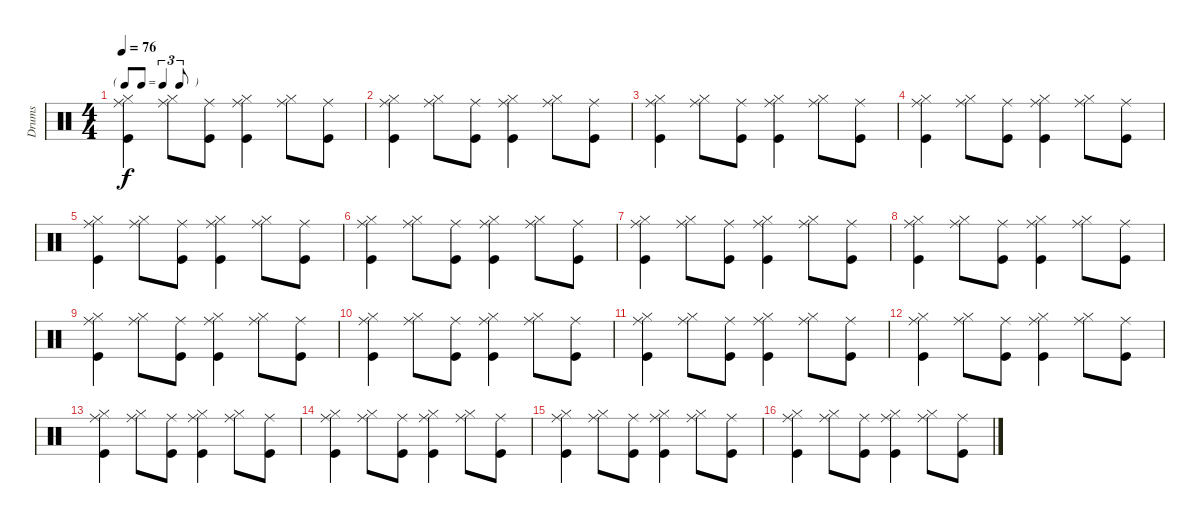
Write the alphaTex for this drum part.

\track ("Drums" "Drums") {instrument percussion}
\staff {score}
\articulation defaults
\ts (4 4)
\tf triplet8th
\tempo 76
\clef neutral
\ks c
("Kick (hit)" "Hi-Hat (closed)" "Ride (middle)").4{dy f} ("Hi-Hat (closed)" "Ride (middle)").8 ("Kick (hit)" "Ride (middle)").8 ("Hi-Hat (closed)" "Ride (middle)" "Kick (hit)").4 ("Hi-Hat (closed)" "Ride (middle)").8 ("Kick (hit)" "Ride (middle)").8 |
("Kick (hit)" "Hi-Hat (closed)" "Ride (middle)").4 ("Hi-Hat (closed)" "Ride (middle)").8 ("Kick (hit)" "Ride (middle)").8 ("Hi-Hat (closed)" "Ride (middle)" "Kick (hit)").4 ("Hi-Hat (closed)" "Ride (middle)").8 ("Kick (hit)" "Ride (middle)").8 |
("Kick (hit)" "Hi-Hat (closed)" "Ride (middle)").4 ("Hi-Hat (closed)" "Ride (middle)").8 ("Kick (hit)" "Ride (middle)").8 ("Hi-Hat (closed)" "Ride (middle)" "Kick (hit)").4 ("Hi-Hat (closed)" "Ride (middle)").8 ("Kick (hit)" "Ride (middle)").8 |
("Kick (hit)" "Hi-Hat (closed)" "Ride (middle)").4 ("Hi-Hat (closed)" "Ride (middle)").8 ("Kick (hit)" "Ride (middle)").8 ("Hi-Hat (closed)" "Ride (middle)" "Kick (hit)").4 ("Hi-Hat (closed)" "Ride (middle)").8 ("Kick (hit)" "Ride (middle)").8 |
("Kick (hit)" "Hi-Hat (closed)" "Ride (middle)").4 ("Hi-Hat (closed)" "Ride (middle)").8 ("Kick (hit)" "Ride (middle)").8 ("Hi-Hat (closed)" "Ride (middle)" "Kick (hit)").4 ("Hi-Hat (closed)" "Ride (middle)").8 ("Kick (hit)" "Ride (middle)").8 |
("Kick (hit)" "Hi-Hat (closed)" "Ride (middle)").4 ("Hi-Hat (closed)" "Ride (middle)").8 ("Kick (hit)" "Ride (middle)").8 ("Hi-Hat (closed)" "Ride (middle)" "Kick (hit)").4 ("Hi-Hat (closed)" "Ride (middle)").8 ("Kick (hit)" "Ride (middle)").8 |
("Kick (hit)" "Hi-Hat (closed)" "Ride (middle)").4 ("Hi-Hat (closed)" "Ride (middle)").8 ("Kick (hit)" "Ride (middle)").8 ("Hi-Hat (closed)" "Ride (middle)" "Kick (hit)").4 ("Hi-Hat (closed)" "Ride (middle)").8 ("Kick (hit)" "Ride (middle)").8 |
("Kick (hit)" "Hi-Hat (closed)" "Ride (middle)").4 ("Hi-Hat (closed)" "Ride (middle)").8 ("Kick (hit)" "Ride (middle)").8 ("Hi-Hat (closed)" "Ride (middle)" "Kick (hit)").4 ("Hi-Hat (closed)" "Ride (middle)").8 ("Kick (hit)" "Ride (middle)").8 |
("Kick (hit)" "Hi-Hat (closed)" "Ride (middle)").4 ("Hi-Hat (closed)" "Ride (middle)").8 ("Kick (hit)" "Ride (middle)").8 ("Hi-Hat (closed)" "Ride (middle)" "Kick (hit)").4 ("Hi-Hat (closed)" "Ride (middle)").8 ("Kick (hit)" "Ride (middle)").8 |
("Kick (hit)" "Hi-Hat (closed)" "Ride (middle)").4 ("Hi-Hat (closed)" "Ride (middle)").8 ("Kick (hit)" "Ride (middle)").8 ("Hi-Hat (closed)" "Ride (middle)" "Kick (hit)").4 ("Hi-Hat (closed)" "Ride (middle)").8 ("Kick (hit)" "Ride (middle)").8 |
("Kick (hit)" "Hi-Hat (closed)" "Ride (middle)").4 ("Hi-Hat (closed)" "Ride (middle)").8 ("Kick (hit)" "Ride (middle)").8 ("Hi-Hat (closed)" "Ride (middle)" "Kick (hit)").4 ("Hi-Hat (closed)" "Ride (middle)").8 ("Kick (hit)" "Ride (middle)").8 |
("Kick (hit)" "Hi-Hat (closed)" "Ride (middle)").4 ("Hi-Hat (closed)" "Ride (middle)").8 ("Kick (hit)" "Ride (middle)").8 ("Hi-Hat (closed)" "Ride (middle)" "Kick (hit)").4 ("Hi-Hat (closed)" "Ride (middle)").8 ("Kick (hit)" "Ride (middle)").8 |
("Kick (hit)" "Hi-Hat (closed)" "Ride (middle)").4 ("Hi-Hat (closed)" "Ride (middle)").8 ("Kick (hit)" "Ride (middle)").8 ("Hi-Hat (closed)" "Ride (middle)" "Kick (hit)").4 ("Hi-Hat (closed)" "Ride (middle)").8 ("Kick (hit)" "Ride (middle)").8 |
("Kick (hit)" "Hi-Hat (closed)" "Ride (middle)").4 ("Hi-Hat (closed)" "Ride (middle)").8 ("Kick (hit)" "Ride (middle)").8 ("Hi-Hat (closed)" "Ride (middle)" "Kick (hit)").4 ("Hi-Hat (closed)" "Ride (middle)").8 ("Kick (hit)" "Ride (middle)").8 |
("Kick (hit)" "Hi-Hat (closed)" "Ride (middle)").4 ("Hi-Hat (closed)" "Ride (middle)").8 ("Kick (hit)" "Ride (middle)").8 ("Hi-Hat (closed)" "Ride (middle)" "Kick (hit)").4 ("Hi-Hat (closed)" "Ride (middle)").8 ("Kick (hit)" "Ride (middle)").8 |
("Kick (hit)" "Hi-Hat (closed)" "Ride (middle)").4 ("Hi-Hat (closed)" "Ride (middle)").8 ("Kick (hit)" "Ride (middle)").8 ("Hi-Hat (closed)" "Ride (middle)" "Kick (hit)").4 ("Hi-Hat (closed)" "Ride (middle)").8 ("Kick (hit)" "Ride (middle)").8
